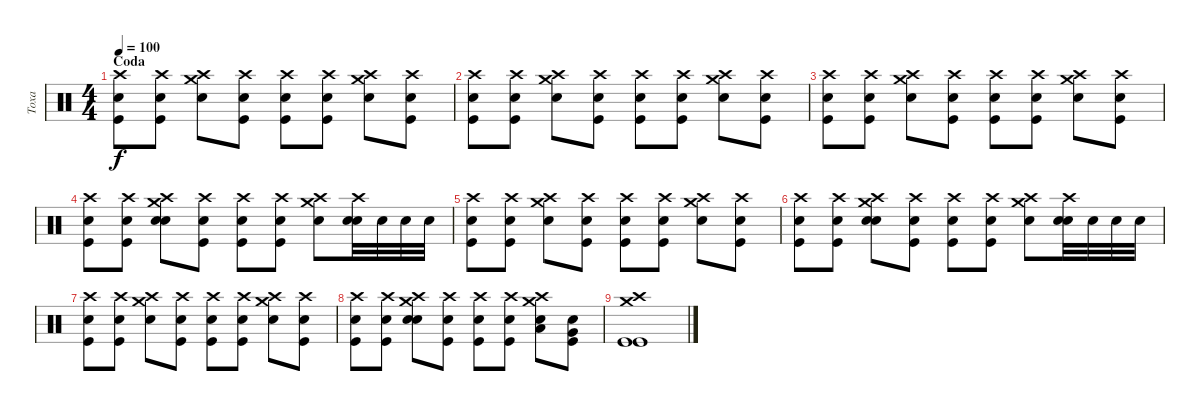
\track ("Toxa" "Toxa") {instrument percussion}
\staff {score}
\articulation defaults
\ts (4 4)
\section ("" "Coda")
\tempo 100
\clef neutral
\ks c
("Crash high (hit)" "Kick (hit)" "Snare (hit)"{x}).8{dy f} ("Crash high (hit)" "Kick (hit)" "Snare (hit)"{x}).8 ("Crash high (hit)" "Snare (hit) 2" "Crash medium (hit)").8 ("Crash high (hit)" "Kick (hit)" "Snare (hit)"{x}).8 ("Crash high (hit)" "Kick (hit)" "Snare (hit)"{x}).8 ("Crash high (hit)" "Kick (hit)" "Snare (hit)"{x}).8 ("Crash high (hit)" "Snare (hit) 2" "Crash medium (hit)").8 ("Crash high (hit)" "Kick (hit)" "Snare (hit)"{x}).8 |
("Crash high (hit)" "Kick (hit)" "Snare (hit)"{x}).8 ("Crash high (hit)" "Kick (hit)" "Snare (hit)"{x}).8 ("Crash high (hit)" "Snare (hit) 2" "Crash medium (hit)").8 ("Crash high (hit)" "Kick (hit)" "Snare (hit)"{x}).8 ("Crash high (hit)" "Kick (hit)" "Snare (hit)"{x}).8 ("Crash high (hit)" "Kick (hit)" "Snare (hit)"{x}).8 ("Crash high (hit)" "Snare (hit) 2" "Crash medium (hit)").8 ("Crash high (hit)" "Kick (hit)" "Snare (hit)"{x}).8 |
("Crash high (hit)" "Kick (hit)" "Snare (hit)"{x}).8 ("Crash high (hit)" "Kick (hit)" "Snare (hit)"{x}).8 ("Crash high (hit)" "Snare (hit) 2" "Crash medium (hit)").8 ("Crash high (hit)" "Kick (hit)" "Snare (hit)"{x}).8 ("Crash high (hit)" "Kick (hit)" "Snare (hit)"{x}).8 ("Crash high (hit)" "Kick (hit)" "Snare (hit)"{x}).8 ("Crash high (hit)" "Snare (hit) 2" "Crash medium (hit)").8 ("Crash high (hit)" "Kick (hit)" "Snare (hit)"{x}).8 |
("Crash high (hit)" "Kick (hit)" "Snare (hit)"{x}).8 ("Crash high (hit)" "Kick (hit)" "Snare (hit)"{x}).8 ("Crash high (hit)" "Snare (hit) 2" "Snare (hit)"{x} "Crash medium (hit)").8 ("Crash high (hit)" "Kick (hit)" "Snare (hit)"{x}).8 ("Crash high (hit)" "Kick (hit)" "Snare (hit)"{x}).8 ("Crash high (hit)" "Kick (hit)" "Snare (hit)"{x}).8 ("Crash high (hit)" "Snare (hit) 2" "Crash medium (hit)").8 ("Crash high (hit)" "Electric Snare (hit)" "Snare (hit)"{x}).32 "Electric Snare (hit)".32 "Electric Snare (hit)".32 "Electric Snare (hit)".32 |
("Crash high (hit)" "Kick (hit)" "Snare (hit)"{x}).8 ("Crash high (hit)" "Kick (hit)" "Snare (hit)"{x}).8 ("Crash high (hit)" "Snare (hit) 2" "Crash medium (hit)").8 ("Crash high (hit)" "Kick (hit)" "Snare (hit)"{x}).8 ("Crash high (hit)" "Kick (hit)" "Snare (hit)"{x}).8 ("Crash high (hit)" "Kick (hit)" "Snare (hit)"{x}).8 ("Crash high (hit)" "Snare (hit) 2" "Crash medium (hit)").8 ("Crash high (hit)" "Kick (hit)" "Snare (hit)"{x}).8 |
("Crash high (hit)" "Kick (hit)" "Snare (hit)"{x}).8 ("Crash high (hit)" "Kick (hit)" "Snare (hit)"{x}).8 ("Crash high (hit)" "Snare (hit) 2" "Snare (hit)"{x} "Crash medium (hit)").8 ("Crash high (hit)" "Kick (hit)" "Snare (hit)"{x}).8 ("Crash high (hit)" "Kick (hit)" "Snare (hit)"{x}).8 ("Crash high (hit)" "Kick (hit)" "Snare (hit)"{x}).8 ("Crash high (hit)" "Snare (hit) 2" "Crash medium (hit)").8 ("Crash high (hit)" "Electric Snare (hit)" "Snare (hit)"{x}).32 "Electric Snare (hit)".32 "Electric Snare (hit)".32 "Electric Snare (hit)".32 |
("Crash high (hit)" "Kick (hit)" "Snare (hit)"{x}).8 ("Crash high (hit)" "Kick (hit)" "Snare (hit)"{x}).8 ("Crash high (hit)" "Snare (hit) 2" "Crash medium (hit)").8 ("Crash high (hit)" "Kick (hit)" "Snare (hit)"{x}).8 ("Crash high (hit)" "Kick (hit)" "Snare (hit)"{x}).8 ("Crash high (hit)" "Kick (hit)" "Snare (hit)"{x}).8 ("Crash high (hit)" "Snare (hit) 2" "Crash medium (hit)").8 ("Crash high (hit)" "Kick (hit)" "Snare (hit)"{x}).8 |
("Crash high (hit)" "Kick (hit)" "Snare (hit)"{x}).8 ("Crash high (hit)" "Kick (hit)" "Snare (hit)"{x}).8 ("Crash high (hit)" "Snare (hit) 2" "Snare (hit)"{x} "Crash medium (hit)").8 ("Crash high (hit)" "Kick (hit)" "Snare (hit)"{x}).8 ("Crash high (hit)" "Kick (hit)" "Snare (hit)"{x}).8 ("Crash high (hit)" "Kick (hit)" "Snare (hit)"{x}).8 ("Crash high (hit)" "Snare (hit) 2" "Low Tom (hit)" "Crash medium (hit)").8 ("Kick (hit)" "Very Low Tom (hit)" "Snare (hit)"{x}).8 |
("Kick (hit)" "Kick (hit)" "Crash high (hit)" "Crash medium (hit)").1
